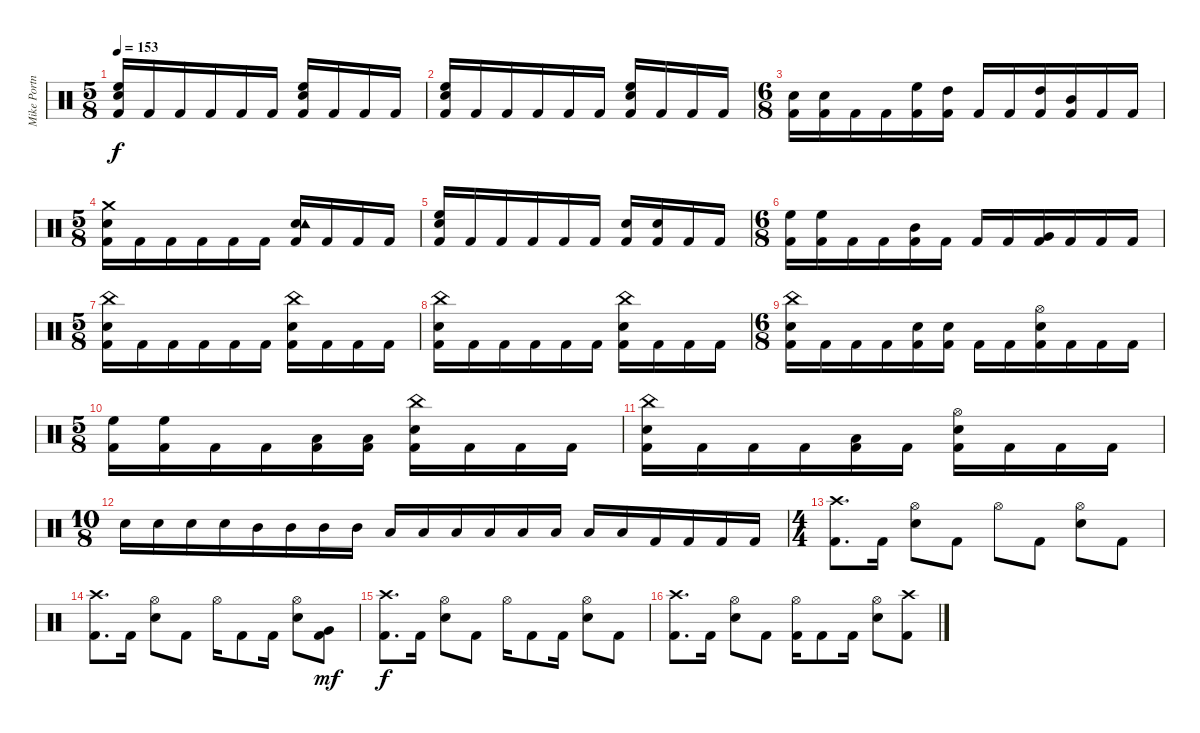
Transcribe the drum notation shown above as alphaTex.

\track ("Mike Portnoy Drums" "Mike Portn") {instrument percussion}
\staff {score}
\articulation defaults
\ts (5 8)
\tempo 153
\clef neutral
\ks c
("Kick (hit) 2" "High Floor Tom (hit)" "Electric Snare (hit)").16{dy f} "Kick (hit) 2".16 "Kick (hit) 2".16 "Kick (hit) 2".16 "Kick (hit) 2".16 "Kick (hit) 2".16 ("Kick (hit) 2" "Electric Snare (hit)" "High Floor Tom (hit)").16 "Kick (hit) 2".16 "Kick (hit) 2".16 "Kick (hit) 2".16 |
("Kick (hit) 2" "Electric Snare (hit)" "High Floor Tom (hit)").16 "Kick (hit) 2".16 "Kick (hit) 2".16 "Kick (hit) 2".16 "Kick (hit) 2".16 "Kick (hit) 2".16 ("Kick (hit) 2" "High Floor Tom (hit)" "Electric Snare (hit)").16 "Kick (hit) 2".16 "Kick (hit) 2".16 "Kick (hit) 2".16 |
\ts (6 8)
("Kick (hit) 2" "Electric Snare (hit)").16 ("Kick (hit) 2" "Electric Snare (hit)").16 "Kick (hit) 2".16 "Kick (hit) 2".16 ("Kick (hit) 2" "High Floor Tom (hit)").16 ("Kick (hit) 2" "High Tom (hit)").16 "Kick (hit) 2".16 "Kick (hit) 2".16 ("Kick (hit) 2" "High Tom (hit)").16 ("Kick (hit) 2" "Mid Tom (hit)").16 "Kick (hit) 2".16 "Kick (hit) 2".16 |
\ts (5 8)
("Kick (hit) 2" "Crash medium (hit)" "Electric Snare (hit)").16 "Kick (hit) 2".16 "Kick (hit) 2".16 "Kick (hit) 2".16 "Kick (hit) 2".16 "Kick (hit) 2".16 ("Kick (hit) 2" "Electric Snare (hit)" "Tambourine (hit)").16 "Kick (hit) 2".16 "Kick (hit) 2".16 "Kick (hit) 2".16 |
("Kick (hit) 2" "Electric Snare (hit)" "High Floor Tom (hit)").16 "Kick (hit) 2".16 "Kick (hit) 2".16 "Kick (hit) 2".16 "Kick (hit) 2".16 "Kick (hit) 2".16 ("Kick (hit) 2" "Electric Snare (hit)").16 ("Kick (hit) 2" "Electric Snare (hit)").16 "Kick (hit) 2".16 "Kick (hit) 2".16 |
\ts (6 8)
("Kick (hit) 2" "High Floor Tom (hit)").16 ("Kick (hit) 2" "High Floor Tom (hit)").16 "Kick (hit) 2".16 "Kick (hit) 2".16 ("Kick (hit) 2" "Mid Tom (hit)").16 "Kick (hit) 2".16 "Kick (hit) 2".16 "Kick (hit) 2".16 ("Kick (hit) 2" "Very Low Tom (hit)").16 "Kick (hit) 2".16 "Kick (hit) 2".16 "Kick (hit) 2".16 |
\ts (5 8)
("Kick (hit) 2" "China (hit)" "Electric Snare (hit)").16 "Kick (hit) 2".16 "Kick (hit) 2".16 "Kick (hit) 2".16 "Kick (hit) 2".16 "Kick (hit) 2".16 ("Kick (hit) 2" "Electric Snare (hit)" "China (hit)").16 "Kick (hit) 2".16 "Kick (hit) 2".16 "Kick (hit) 2".16 |
("Kick (hit) 2" "Electric Snare (hit)" "China (hit)").16 "Kick (hit) 2".16 "Kick (hit) 2".16 "Kick (hit) 2".16 "Kick (hit) 2".16 "Kick (hit) 2".16 ("Kick (hit) 2" "Electric Snare (hit)" "China (hit)").16 "Kick (hit) 2".16 "Kick (hit) 2".16 "Kick (hit) 2".16 |
\ts (6 8)
("Kick (hit) 2" "Electric Snare (hit)" "China (hit)").16 "Kick (hit) 2".16 "Kick (hit) 2".16 "Kick (hit) 2".16 ("Kick (hit) 2" "Electric Snare (hit)").16 ("Kick (hit) 2" "Electric Snare (hit)").16 "Kick (hit) 2".16 "Kick (hit) 2".16 ("Kick (hit) 2" "Electric Snare (hit)" "Hi-Hat (open)").16 "Kick (hit) 2".16 "Kick (hit) 2".16 "Kick (hit) 2".16 |
\ts (5 8)
("Kick (hit) 2" "High Floor Tom (hit)").16 ("Kick (hit) 2" "High Floor Tom (hit)").16 "Kick (hit) 2".16 "Kick (hit) 2".16 ("Kick (hit) 2" "Low Tom (hit)").16 ("Kick (hit) 2" "Low Tom (hit)").16 ("Kick (hit) 2" "Electric Snare (hit)" "China (hit)").16 "Kick (hit) 2".16 "Kick (hit) 2".16 "Kick (hit) 2".16 |
("Kick (hit) 2" "Electric Snare (hit)" "China (hit)").16 "Kick (hit) 2".16 "Kick (hit) 2".16 "Kick (hit) 2".16 ("Kick (hit) 2" "Low Tom (hit)").16 "Kick (hit) 2".16 ("Kick (hit) 2" "Electric Snare (hit)" "Hi-Hat (open)").16 "Kick (hit) 2".16 "Kick (hit) 2".16 "Kick (hit) 2".16 |
\ts (10 8)
"Snare (hit) 2".16 "Snare (hit) 2".16 "Snare (hit) 2".16 "Snare (hit) 2".16 "Mid Tom (hit)".16 "Mid Tom (hit)".16 "Mid Tom (hit)".16 "Mid Tom (hit)".16 "Low Tom (hit)".16 "Low Tom (hit)".16 "Low Tom (hit)".16 "Low Tom (hit)".16 "Low Floor Tom (hit)".16 "Low Floor Tom (hit)".16 "Low Floor Tom (hit)".16 "Low Floor Tom (hit)".16 "Kick (hit) 2".16 "Kick (hit) 2".16 "Kick (hit) 2".16 "Kick (hit) 2".16 |
\ts (4 4)
("Crash high (hit)" "Kick (hit) 2").8{d} "Kick (hit) 2".16 ("Electric Snare (hit)" "Hi-Hat (open)").8 "Kick (hit) 2".8 "Hi-Hat (open)".8 "Kick (hit) 2".8 ("Electric Snare (hit)" "Hi-Hat (open)").8 "Kick (hit) 2".8 |
("Kick (hit) 2" "Crash high (hit)").8{d} "Kick (hit) 2".16 ("Electric Snare (hit)" "Hi-Hat (open)").8 "Kick (hit) 2".8 "Hi-Hat (open)".16 "Kick (hit) 2".8 "Kick (hit) 2".16 ("Electric Snare (hit)" "Hi-Hat (open)").8 ("Kick (hit) 2" "Very Low Tom (hit)").8{dy mf} |
("Crash high (hit)" "Kick (hit) 2").8{d dy f} "Kick (hit) 2".16 ("Electric Snare (hit)" "Hi-Hat (open)").8 "Kick (hit) 2".8 "Hi-Hat (open)".16 "Kick (hit) 2".8 "Kick (hit) 2".16 ("Electric Snare (hit)" "Hi-Hat (open)").8 "Kick (hit) 2".8 |
("Kick (hit) 2" "Crash high (hit)").8{d} "Kick (hit) 2".16 ("Electric Snare (hit)" "Hi-Hat (open)").8 "Kick (hit) 2".8 ("Hi-Hat (open)" "Kick (hit) 2").16 "Kick (hit) 2".8 "Kick (hit) 2".16 ("Electric Snare (hit)" "Hi-Hat (open)").8 ("Kick (hit) 2" "Crash high (hit)").8
